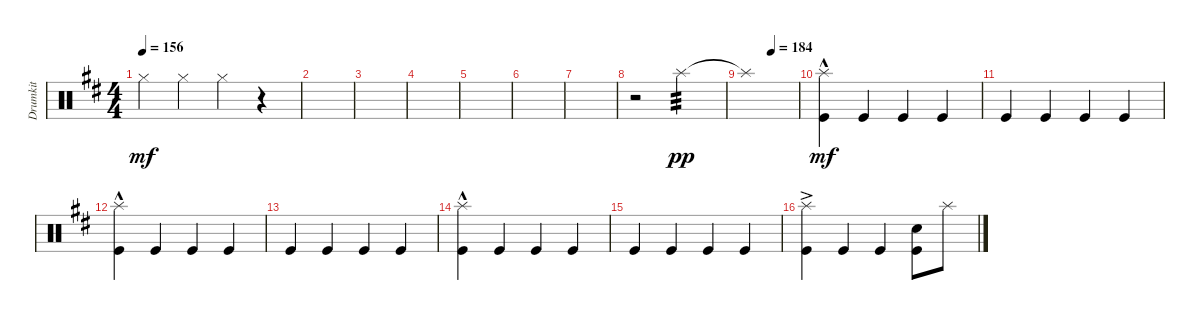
\track ("Drumkit" "Drumkit") {instrument percussion}
\staff {score}
\articulation defaults
\ts (4 4)
\tempo 156
\clef neutral
\ks d "Hi-Hat (closed)".4{dy mf} "Hi-Hat (closed)".4 "Hi-Hat (closed)".4
r.4 |
|
|
|
|
|
|
r.2 "Splash (hit)".2{tp 3 dy pp} |
\tempo (184 0.5)
"Splash (hit)"{t}.1 |
("Kick (hit)" "Splash (hit)"{hac}).4{dy mf} "Kick (hit)".4 "Kick (hit)".4 "Kick (hit)".4 |
"Kick (hit)".4 "Kick (hit)".4 "Kick (hit)".4 "Kick (hit)".4 |
("Kick (hit)" "Splash (hit)"{hac}).4 "Kick (hit)".4 "Kick (hit)".4 "Kick (hit)".4 |
"Kick (hit)".4 "Kick (hit)".4 "Kick (hit)".4 "Kick (hit)".4 |
("Kick (hit)" "Splash (hit)"{hac}).4 "Kick (hit)".4 "Kick (hit)".4 "Kick (hit)".4 |
"Kick (hit)".4 "Kick (hit)".4 "Kick (hit)".4 "Kick (hit)".4 |
("Kick (hit)" "Splash (hit)"{ac}).4 "Kick (hit)".4 "Kick (hit)".4 ("Kick (hit)" "Snare (hit) 2").8 "Splash (hit)".8
